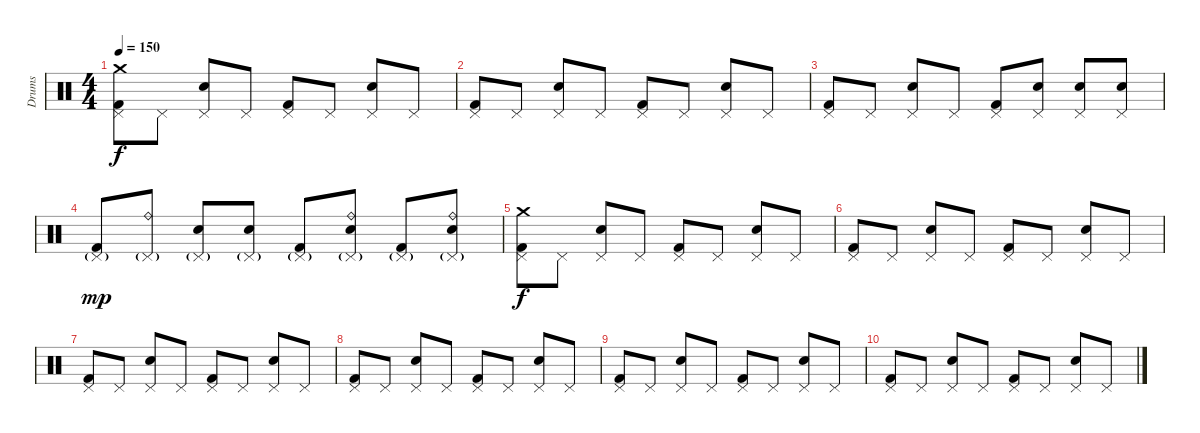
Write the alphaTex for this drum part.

\track ("Drums" "Drums") {instrument percussion}
\staff {score}
\articulation defaults
\ts (4 4)
\tempo 150
\clef neutral
\ks c
("Crash medium (hit)" "Pedal Hi-Hat (hit)" "Kick (hit) 2").8{dy f} "Pedal Hi-Hat (hit)".8 ("Pedal Hi-Hat (hit)" "Electric Snare (hit)").8 "Pedal Hi-Hat (hit)".8 ("Pedal Hi-Hat (hit)" "Kick (hit) 2").8 "Pedal Hi-Hat (hit)".8 ("Pedal Hi-Hat (hit)" "Electric Snare (hit)").8 "Pedal Hi-Hat (hit)".8 |
("Pedal Hi-Hat (hit)" "Kick (hit) 2").8 "Pedal Hi-Hat (hit)".8 ("Pedal Hi-Hat (hit)" "Electric Snare (hit)").8 "Pedal Hi-Hat (hit)".8 ("Pedal Hi-Hat (hit)" "Kick (hit) 2").8 "Pedal Hi-Hat (hit)".8 ("Pedal Hi-Hat (hit)" "Electric Snare (hit)").8 "Pedal Hi-Hat (hit)".8 |
("Pedal Hi-Hat (hit)" "Kick (hit) 2").8 "Pedal Hi-Hat (hit)".8 ("Pedal Hi-Hat (hit)" "Electric Snare (hit)").8 "Pedal Hi-Hat (hit)".8 ("Pedal Hi-Hat (hit)" "Kick (hit) 2").8 ("Pedal Hi-Hat (hit)" "Electric Snare (hit)").8 ("Pedal Hi-Hat (hit)" "Electric Snare (hit)").8 ("Pedal Hi-Hat (hit)" "Electric Snare (hit)").8 |
("Pedal Hi-Hat (hit)"{g} "Kick (hit) 2").8{dy mp} ("Ride (bell)" "Pedal Hi-Hat (hit)"{g}).8 ("Pedal Hi-Hat (hit)"{g} "Electric Snare (hit)").8 ("Pedal Hi-Hat (hit)"{g} "Electric Snare (hit)").8 ("Pedal Hi-Hat (hit)"{g} "Kick (hit) 2").8 ("Ride (bell)" "Pedal Hi-Hat (hit)"{g} "Electric Snare (hit)").8 ("Pedal Hi-Hat (hit)"{g} "Kick (hit) 2").8 ("Ride (bell)" "Pedal Hi-Hat (hit)"{g} "Electric Snare (hit)").8 |
("Crash medium (hit)" "Pedal Hi-Hat (hit)" "Kick (hit) 2").8{dy f} "Pedal Hi-Hat (hit)".8 ("Pedal Hi-Hat (hit)" "Electric Snare (hit)").8 "Pedal Hi-Hat (hit)".8 ("Pedal Hi-Hat (hit)" "Kick (hit) 2").8 "Pedal Hi-Hat (hit)".8 ("Pedal Hi-Hat (hit)" "Electric Snare (hit)").8 "Pedal Hi-Hat (hit)".8 |
("Pedal Hi-Hat (hit)" "Kick (hit) 2").8 "Pedal Hi-Hat (hit)".8 ("Pedal Hi-Hat (hit)" "Electric Snare (hit)").8 "Pedal Hi-Hat (hit)".8 ("Pedal Hi-Hat (hit)" "Kick (hit) 2").8 "Pedal Hi-Hat (hit)".8 ("Pedal Hi-Hat (hit)" "Electric Snare (hit)").8 "Pedal Hi-Hat (hit)".8 |
("Pedal Hi-Hat (hit)" "Kick (hit) 2").8 "Pedal Hi-Hat (hit)".8 ("Pedal Hi-Hat (hit)" "Electric Snare (hit)").8 "Pedal Hi-Hat (hit)".8 ("Pedal Hi-Hat (hit)" "Kick (hit) 2").8 "Pedal Hi-Hat (hit)".8 ("Pedal Hi-Hat (hit)" "Electric Snare (hit)").8 "Pedal Hi-Hat (hit)".8 |
("Pedal Hi-Hat (hit)" "Kick (hit) 2").8 "Pedal Hi-Hat (hit)".8 ("Pedal Hi-Hat (hit)" "Electric Snare (hit)").8 "Pedal Hi-Hat (hit)".8 ("Pedal Hi-Hat (hit)" "Kick (hit) 2").8 "Pedal Hi-Hat (hit)".8 ("Pedal Hi-Hat (hit)" "Electric Snare (hit)").8 "Pedal Hi-Hat (hit)".8 |
("Pedal Hi-Hat (hit)" "Kick (hit) 2").8 "Pedal Hi-Hat (hit)".8 ("Pedal Hi-Hat (hit)" "Electric Snare (hit)").8 "Pedal Hi-Hat (hit)".8 ("Pedal Hi-Hat (hit)" "Kick (hit) 2").8 "Pedal Hi-Hat (hit)".8 ("Pedal Hi-Hat (hit)" "Electric Snare (hit)").8 "Pedal Hi-Hat (hit)".8 |
("Pedal Hi-Hat (hit)" "Kick (hit) 2").8 "Pedal Hi-Hat (hit)".8 ("Pedal Hi-Hat (hit)" "Electric Snare (hit)").8 "Pedal Hi-Hat (hit)".8 ("Pedal Hi-Hat (hit)" "Kick (hit) 2").8 "Pedal Hi-Hat (hit)".8 ("Pedal Hi-Hat (hit)" "Electric Snare (hit)").8 "Pedal Hi-Hat (hit)".8
